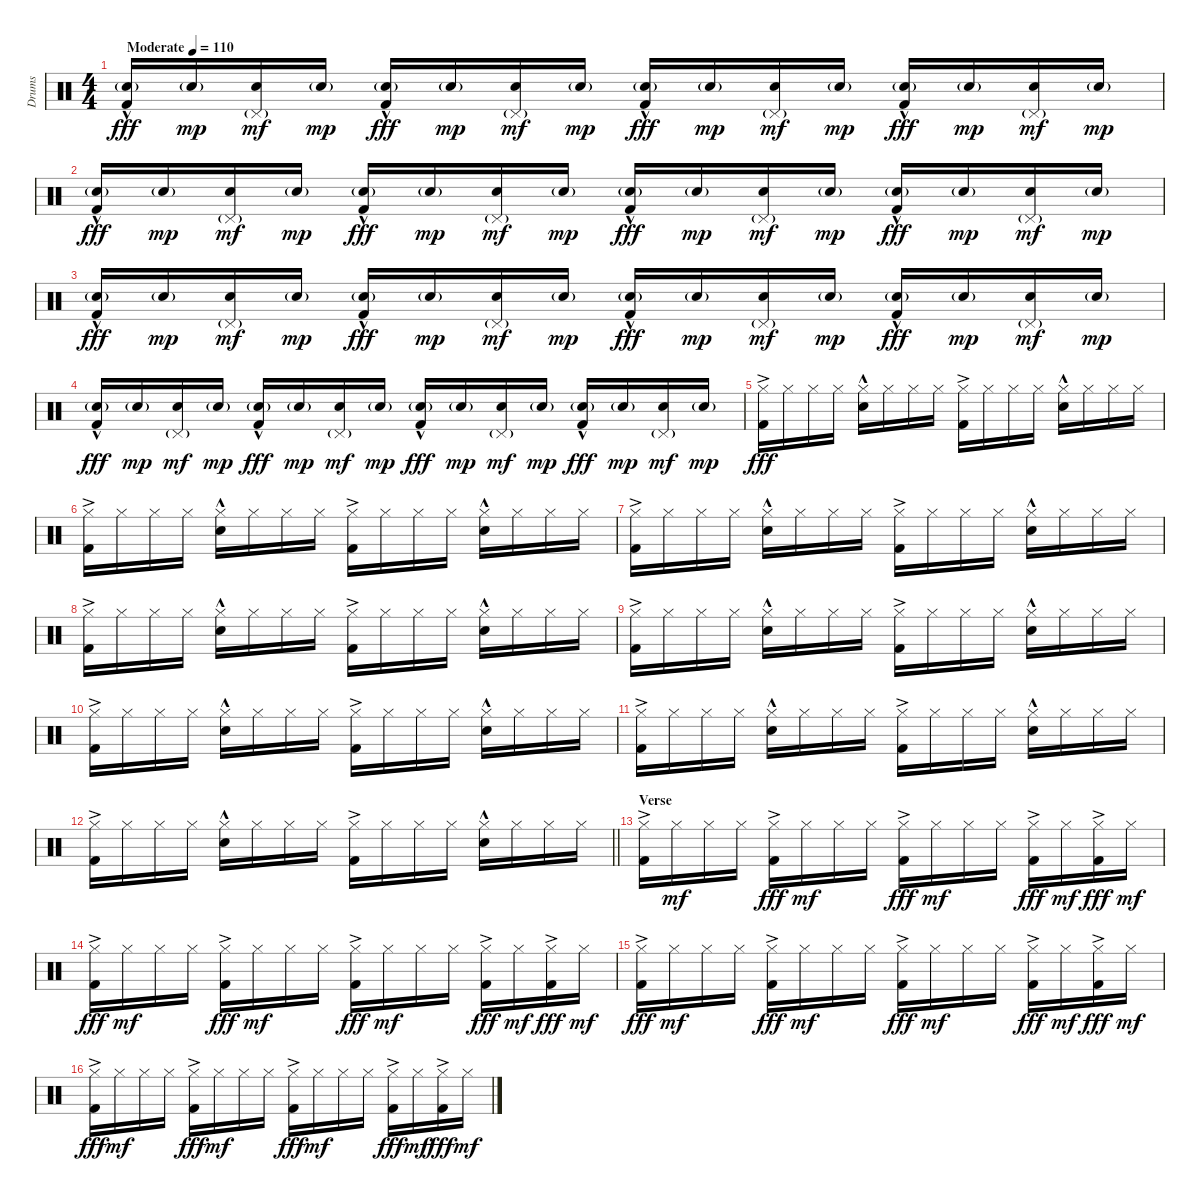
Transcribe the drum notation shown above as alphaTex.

\track ("Drums" "Drums") {instrument percussion}
\staff {score}
\articulation defaults
\ts (4 4)
\tempo (110 "Moderate")
\clef neutral
\ks c
("Electric Snare (hit)"{g} "Kick (hit) 2"{hac}).16{dy fff volume 7} "Electric Snare (hit)"{g}.16{dy mp} ("Pedal Hi-Hat (hit)"{g} "Electric Snare (hit)").16{dy mf} "Electric Snare (hit)"{g}.16{dy mp} ("Electric Snare (hit)"{g} "Kick (hit) 2"{hac}).16{dy fff} "Electric Snare (hit)"{g}.16{dy mp} ("Pedal Hi-Hat (hit)"{g} "Electric Snare (hit)").16{dy mf} "Electric Snare (hit)"{g}.16{dy mp} ("Electric Snare (hit)"{g} "Kick (hit) 2"{hac}).16{dy fff} "Electric Snare (hit)"{g}.16{dy mp} ("Pedal Hi-Hat (hit)"{g} "Electric Snare (hit)").16{dy mf} "Electric Snare (hit)"{g}.16{dy mp} ("Electric Snare (hit)"{g} "Kick (hit) 2"{hac}).16{dy fff} "Electric Snare (hit)"{g}.16{dy mp} ("Pedal Hi-Hat (hit)"{g} "Electric Snare (hit)").16{dy mf} "Electric Snare (hit)"{g}.16{dy mp} |
("Electric Snare (hit)"{g} "Kick (hit) 2"{hac}).16{dy fff volume 13} "Electric Snare (hit)"{g}.16{dy mp} ("Pedal Hi-Hat (hit)"{g} "Electric Snare (hit)").16{dy mf} "Electric Snare (hit)"{g}.16{dy mp} ("Electric Snare (hit)"{g} "Kick (hit) 2"{hac}).16{dy fff} "Electric Snare (hit)"{g}.16{dy mp} ("Pedal Hi-Hat (hit)"{g} "Electric Snare (hit)").16{dy mf} "Electric Snare (hit)"{g}.16{dy mp} ("Electric Snare (hit)"{g} "Kick (hit) 2"{hac}).16{dy fff} "Electric Snare (hit)"{g}.16{dy mp} ("Pedal Hi-Hat (hit)"{g} "Electric Snare (hit)").16{dy mf} "Electric Snare (hit)"{g}.16{dy mp} ("Electric Snare (hit)"{g} "Kick (hit) 2"{hac}).16{dy fff} "Electric Snare (hit)"{g}.16{dy mp} ("Pedal Hi-Hat (hit)"{g} "Electric Snare (hit)").16{dy mf} "Electric Snare (hit)"{g}.16{dy mp} |
("Electric Snare (hit)"{g} "Kick (hit) 2"{hac}).16{dy fff} "Electric Snare (hit)"{g}.16{dy mp} ("Pedal Hi-Hat (hit)"{g} "Electric Snare (hit)").16{dy mf} "Electric Snare (hit)"{g}.16{dy mp} ("Electric Snare (hit)"{g} "Kick (hit) 2"{hac}).16{dy fff} "Electric Snare (hit)"{g}.16{dy mp} ("Pedal Hi-Hat (hit)"{g} "Electric Snare (hit)").16{dy mf} "Electric Snare (hit)"{g}.16{dy mp} ("Electric Snare (hit)"{g} "Kick (hit) 2"{hac}).16{dy fff} "Electric Snare (hit)"{g}.16{dy mp} ("Pedal Hi-Hat (hit)"{g} "Electric Snare (hit)").16{dy mf} "Electric Snare (hit)"{g}.16{dy mp} ("Electric Snare (hit)"{g} "Kick (hit) 2"{hac}).16{dy fff} "Electric Snare (hit)"{g}.16{dy mp} ("Pedal Hi-Hat (hit)"{g} "Electric Snare (hit)").16{dy mf} "Electric Snare (hit)"{g}.16{dy mp} |
("Electric Snare (hit)"{g} "Kick (hit) 2"{hac}).16{dy fff} "Electric Snare (hit)"{g}.16{dy mp} ("Pedal Hi-Hat (hit)"{g} "Electric Snare (hit)").16{dy mf} "Electric Snare (hit)"{g}.16{dy mp} ("Electric Snare (hit)"{g} "Kick (hit) 2"{hac}).16{dy fff} "Electric Snare (hit)"{g}.16{dy mp} ("Pedal Hi-Hat (hit)"{g} "Electric Snare (hit)").16{dy mf} "Electric Snare (hit)"{g}.16{dy mp} ("Electric Snare (hit)"{g} "Kick (hit) 2"{hac}).16{dy fff} "Electric Snare (hit)"{g}.16{dy mp} ("Pedal Hi-Hat (hit)"{g} "Electric Snare (hit)").16{dy mf} "Electric Snare (hit)"{g}.16{dy mp} ("Electric Snare (hit)"{g} "Kick (hit) 2"{hac}).16{dy fff} "Electric Snare (hit)"{g}.16{dy mp} ("Pedal Hi-Hat (hit)"{g} "Electric Snare (hit)").16{dy mf} "Electric Snare (hit)"{g}.16{dy mp} |
("Hi-Hat (closed)" "Kick (hit) 2"{ac}).16{dy fff} "Hi-Hat (closed)".16 "Hi-Hat (closed)".16 "Hi-Hat (closed)".16 ("Hi-Hat (closed)" "Electric Snare (hit)"{hac}).16 "Hi-Hat (closed)".16 "Hi-Hat (closed)".16 "Hi-Hat (closed)".16 ("Hi-Hat (closed)" "Kick (hit) 2"{ac}).16 "Hi-Hat (closed)".16 "Hi-Hat (closed)".16 "Hi-Hat (closed)".16 ("Hi-Hat (closed)" "Electric Snare (hit)"{hac}).16 "Hi-Hat (closed)".16 "Hi-Hat (closed)".16 "Hi-Hat (closed)".16 |
("Hi-Hat (closed)" "Kick (hit) 2"{ac}).16 "Hi-Hat (closed)".16 "Hi-Hat (closed)".16 "Hi-Hat (closed)".16 ("Hi-Hat (closed)" "Electric Snare (hit)"{hac}).16 "Hi-Hat (closed)".16 "Hi-Hat (closed)".16 "Hi-Hat (closed)".16 ("Hi-Hat (closed)" "Kick (hit) 2"{ac}).16 "Hi-Hat (closed)".16 "Hi-Hat (closed)".16 "Hi-Hat (closed)".16 ("Hi-Hat (closed)" "Electric Snare (hit)"{hac}).16 "Hi-Hat (closed)".16 "Hi-Hat (closed)".16 "Hi-Hat (closed)".16 |
("Hi-Hat (closed)" "Kick (hit) 2"{ac}).16 "Hi-Hat (closed)".16 "Hi-Hat (closed)".16 "Hi-Hat (closed)".16 ("Hi-Hat (closed)" "Electric Snare (hit)"{hac}).16 "Hi-Hat (closed)".16 "Hi-Hat (closed)".16 "Hi-Hat (closed)".16 ("Hi-Hat (closed)" "Kick (hit) 2"{ac}).16 "Hi-Hat (closed)".16 "Hi-Hat (closed)".16 "Hi-Hat (closed)".16 ("Hi-Hat (closed)" "Electric Snare (hit)"{hac}).16 "Hi-Hat (closed)".16 "Hi-Hat (closed)".16 "Hi-Hat (closed)".16 |
("Hi-Hat (closed)" "Kick (hit) 2"{ac}).16 "Hi-Hat (closed)".16 "Hi-Hat (closed)".16 "Hi-Hat (closed)".16 ("Hi-Hat (closed)" "Electric Snare (hit)"{hac}).16 "Hi-Hat (closed)".16 "Hi-Hat (closed)".16 "Hi-Hat (closed)".16 ("Hi-Hat (closed)" "Kick (hit) 2"{ac}).16 "Hi-Hat (closed)".16 "Hi-Hat (closed)".16 "Hi-Hat (closed)".16 ("Hi-Hat (closed)" "Electric Snare (hit)"{hac}).16 "Hi-Hat (closed)".16 "Hi-Hat (closed)".16 "Hi-Hat (closed)".16 |
("Hi-Hat (closed)" "Kick (hit) 2"{ac}).16 "Hi-Hat (closed)".16 "Hi-Hat (closed)".16 "Hi-Hat (closed)".16 ("Hi-Hat (closed)" "Electric Snare (hit)"{hac}).16 "Hi-Hat (closed)".16 "Hi-Hat (closed)".16 "Hi-Hat (closed)".16 ("Hi-Hat (closed)" "Kick (hit) 2"{ac}).16 "Hi-Hat (closed)".16 "Hi-Hat (closed)".16 "Hi-Hat (closed)".16 ("Hi-Hat (closed)" "Electric Snare (hit)"{hac}).16 "Hi-Hat (closed)".16 "Hi-Hat (closed)".16 "Hi-Hat (closed)".16 |
("Hi-Hat (closed)" "Kick (hit) 2"{ac}).16 "Hi-Hat (closed)".16 "Hi-Hat (closed)".16 "Hi-Hat (closed)".16 ("Hi-Hat (closed)" "Electric Snare (hit)"{hac}).16 "Hi-Hat (closed)".16 "Hi-Hat (closed)".16 "Hi-Hat (closed)".16 ("Hi-Hat (closed)" "Kick (hit) 2"{ac}).16 "Hi-Hat (closed)".16 "Hi-Hat (closed)".16 "Hi-Hat (closed)".16 ("Hi-Hat (closed)" "Electric Snare (hit)"{hac}).16 "Hi-Hat (closed)".16 "Hi-Hat (closed)".16 "Hi-Hat (closed)".16 |
("Hi-Hat (closed)" "Kick (hit) 2"{ac}).16 "Hi-Hat (closed)".16 "Hi-Hat (closed)".16 "Hi-Hat (closed)".16 ("Hi-Hat (closed)" "Electric Snare (hit)"{hac}).16 "Hi-Hat (closed)".16 "Hi-Hat (closed)".16 "Hi-Hat (closed)".16 ("Hi-Hat (closed)" "Kick (hit) 2"{ac}).16 "Hi-Hat (closed)".16 "Hi-Hat (closed)".16 "Hi-Hat (closed)".16 ("Hi-Hat (closed)" "Electric Snare (hit)"{hac}).16 "Hi-Hat (closed)".16 "Hi-Hat (closed)".16 "Hi-Hat (closed)".16 |
\barLineRight lightlight
("Hi-Hat (closed)" "Kick (hit) 2"{ac}).16 "Hi-Hat (closed)".16 "Hi-Hat (closed)".16 "Hi-Hat (closed)".16 ("Hi-Hat (closed)" "Electric Snare (hit)"{hac}).16 "Hi-Hat (closed)".16 "Hi-Hat (closed)".16 "Hi-Hat (closed)".16 ("Hi-Hat (closed)" "Kick (hit) 2"{ac}).16 "Hi-Hat (closed)".16 "Hi-Hat (closed)".16 "Hi-Hat (closed)".16 ("Hi-Hat (closed)" "Electric Snare (hit)"{hac}).16 "Hi-Hat (closed)".16 "Hi-Hat (closed)".16 "Hi-Hat (closed)".16 |
\section ("" "Verse")
("Hi-Hat (closed)" "Kick (hit) 2"{ac}).16 "Hi-Hat (closed)".16{dy mf} "Hi-Hat (closed)".16 "Hi-Hat (closed)".16 ("Hi-Hat (closed)" "Kick (hit) 2"{ac}).16{dy fff} "Hi-Hat (closed)".16{dy mf} "Hi-Hat (closed)".16 "Hi-Hat (closed)".16 ("Hi-Hat (closed)" "Kick (hit) 2"{ac}).16{dy fff} "Hi-Hat (closed)".16{dy mf} "Hi-Hat (closed)".16 "Hi-Hat (closed)".16 ("Hi-Hat (closed)" "Kick (hit) 2"{ac}).16{dy fff} "Hi-Hat (closed)".16{dy mf} ("Hi-Hat (closed)" "Kick (hit) 2"{ac}).16{dy fff} "Hi-Hat (closed)".16{dy mf} |
("Hi-Hat (closed)" "Kick (hit) 2"{ac}).16{dy fff} "Hi-Hat (closed)".16{dy mf} "Hi-Hat (closed)".16 "Hi-Hat (closed)".16 ("Hi-Hat (closed)" "Kick (hit) 2"{ac}).16{dy fff} "Hi-Hat (closed)".16{dy mf} "Hi-Hat (closed)".16 "Hi-Hat (closed)".16 ("Hi-Hat (closed)" "Kick (hit) 2"{ac}).16{dy fff} "Hi-Hat (closed)".16{dy mf} "Hi-Hat (closed)".16 "Hi-Hat (closed)".16 ("Hi-Hat (closed)" "Kick (hit) 2"{ac}).16{dy fff} "Hi-Hat (closed)".16{dy mf} ("Hi-Hat (closed)" "Kick (hit) 2"{ac}).16{dy fff} "Hi-Hat (closed)".16{dy mf} |
("Hi-Hat (closed)" "Kick (hit) 2"{ac}).16{dy fff} "Hi-Hat (closed)".16{dy mf} "Hi-Hat (closed)".16 "Hi-Hat (closed)".16 ("Hi-Hat (closed)" "Kick (hit) 2"{ac}).16{dy fff} "Hi-Hat (closed)".16{dy mf} "Hi-Hat (closed)".16 "Hi-Hat (closed)".16 ("Hi-Hat (closed)" "Kick (hit) 2"{ac}).16{dy fff} "Hi-Hat (closed)".16{dy mf} "Hi-Hat (closed)".16 "Hi-Hat (closed)".16 ("Hi-Hat (closed)" "Kick (hit) 2"{ac}).16{dy fff} "Hi-Hat (closed)".16{dy mf} ("Hi-Hat (closed)" "Kick (hit) 2"{ac}).16{dy fff} "Hi-Hat (closed)".16{dy mf} |
("Hi-Hat (closed)" "Kick (hit) 2"{ac}).16{dy fff} "Hi-Hat (closed)".16{dy mf} "Hi-Hat (closed)".16 "Hi-Hat (closed)".16 ("Hi-Hat (closed)" "Kick (hit) 2"{ac}).16{dy fff} "Hi-Hat (closed)".16{dy mf} "Hi-Hat (closed)".16 "Hi-Hat (closed)".16 ("Hi-Hat (closed)" "Kick (hit) 2"{ac}).16{dy fff} "Hi-Hat (closed)".16{dy mf} "Hi-Hat (closed)".16 "Hi-Hat (closed)".16 ("Hi-Hat (closed)" "Kick (hit) 2"{ac}).16{dy fff} "Hi-Hat (closed)".16{dy mf} ("Hi-Hat (closed)" "Kick (hit) 2"{ac}).16{dy fff} "Hi-Hat (closed)".16{dy mf}
